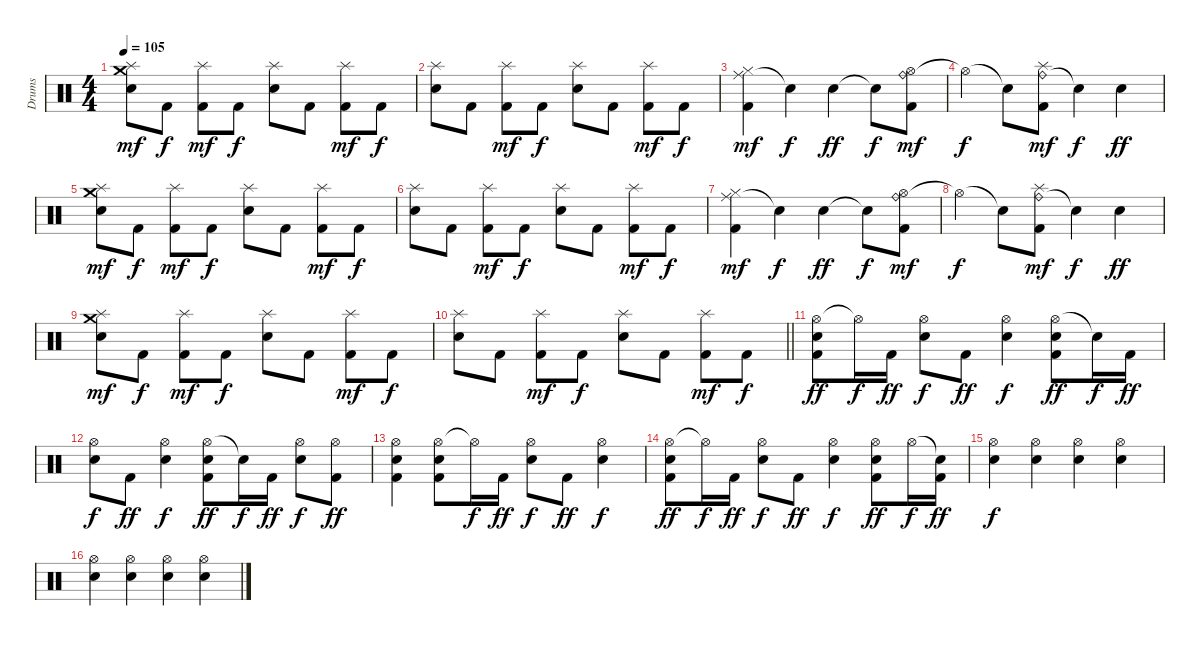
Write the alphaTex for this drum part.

\track ("Drums" "Drums") {instrument percussion}
\staff {score}
\articulation defaults
\ts (4 4)
\tempo 105
\clef neutral
\ks c
("Crash medium (hit)" "Splash (hit)" "Snare (hit) 2").8{dy mf} "Kick (hit) 2".8{dy f} ("Splash (hit)" "Kick (hit) 2").8{dy mf} "Kick (hit) 2".8{dy f} ("Splash (hit)" "Snare (hit) 2").8 "Kick (hit) 2".8 ("Splash (hit)" "Kick (hit) 2").8{dy mf} "Kick (hit) 2".8{dy f} |
("Splash (hit)" "Snare (hit) 2").8 "Kick (hit) 2".8 ("Splash (hit)" "Kick (hit) 2").8{dy mf} "Kick (hit) 2".8{dy f} ("Splash (hit)" "Snare (hit) 2").8 "Kick (hit) 2".8 ("Splash (hit)" "Kick (hit) 2").8{dy mf} "Kick (hit) 2".8{dy f} |
("Ride (middle)" "Hi-Hat (closed)" "Kick (hit) 2").4{dy mf} "Snare (hit)"{t}.4{dy f} "Snare (hit) 2".4{dy ff} "Snare (hit)"{t}.8{dy f} ("Ride (bell)" "Hi-Hat (open)" "Kick (hit) 2").8{dy mf} |
"Hi-Hat (open)"{t}.4{dy f} "Snare (hit)"{t}.8 ("Ride (bell)" "Splash (hit)" "Kick (hit) 2").8{dy mf} "Snare (hit)"{t}.4{dy f} "Snare (hit) 2".4{dy ff} |
("Crash medium (hit)" "Splash (hit)" "Snare (hit) 2").8{dy mf} "Kick (hit) 2".8{dy f} ("Splash (hit)" "Kick (hit) 2").8{dy mf} "Kick (hit) 2".8{dy f} ("Splash (hit)" "Snare (hit) 2").8 "Kick (hit) 2".8 ("Splash (hit)" "Kick (hit) 2").8{dy mf} "Kick (hit) 2".8{dy f} |
("Splash (hit)" "Snare (hit) 2").8 "Kick (hit) 2".8 ("Splash (hit)" "Kick (hit) 2").8{dy mf} "Kick (hit) 2".8{dy f} ("Splash (hit)" "Snare (hit) 2").8 "Kick (hit) 2".8 ("Splash (hit)" "Kick (hit) 2").8{dy mf} "Kick (hit) 2".8{dy f} |
("Ride (middle)" "Hi-Hat (closed)" "Kick (hit) 2").4{dy mf} "Snare (hit)"{t}.4{dy f} "Snare (hit) 2".4{dy ff} "Snare (hit)"{t}.8{dy f} ("Ride (bell)" "Hi-Hat (open)" "Kick (hit) 2").8{dy mf} |
"Hi-Hat (open)"{t}.4{dy f} "Snare (hit)"{t}.8 ("Ride (bell)" "Splash (hit)" "Kick (hit) 2").8{dy mf} "Snare (hit)"{t}.4{dy f} "Snare (hit) 2".4{dy ff} |
("Crash medium (hit)" "Splash (hit)" "Snare (hit) 2").8{dy mf} "Kick (hit) 2".8{dy f} ("Splash (hit)" "Kick (hit) 2").8{dy mf} "Kick (hit) 2".8{dy f} ("Splash (hit)" "Snare (hit) 2").8 "Kick (hit) 2".8 ("Splash (hit)" "Kick (hit) 2").8{dy mf} "Kick (hit) 2".8{dy f} |
\barLineRight lightlight
("Splash (hit)" "Snare (hit) 2").8 "Kick (hit) 2".8 ("Splash (hit)" "Kick (hit) 2").8{dy mf} "Kick (hit) 2".8{dy f} ("Splash (hit)" "Snare (hit) 2").8 "Kick (hit) 2".8 ("Splash (hit)" "Kick (hit) 2").8{dy mf} "Kick (hit) 2".8{dy f} |
\section ("" "")
("Hi-Hat (open)" "Snare (hit) 2" "Kick (hit) 2").8{dy ff} "Hi-Hat (open)"{t}.16{dy f} "Kick (hit) 2".16{dy ff} ("Hi-Hat (open)" "Snare (hit) 2").8{dy f} "Kick (hit) 2".8{dy ff} ("Hi-Hat (open)" "Snare (hit) 2").4{dy f} ("Hi-Hat (open)" "Snare (hit) 2" "Kick (hit) 2").8{dy ff} "Snare (hit)"{t}.16{dy f} "Kick (hit) 2".16{dy ff} |
("Hi-Hat (open)" "Snare (hit) 2").8{dy f} "Kick (hit) 2".8{dy ff} ("Hi-Hat (open)" "Snare (hit) 2").4{dy f} ("Hi-Hat (open)" "Snare (hit) 2" "Kick (hit) 2").8{dy ff} "Snare (hit)"{t}.16{dy f} "Kick (hit) 2".16{dy ff} ("Hi-Hat (open)" "Snare (hit) 2").8{dy f} ("Hi-Hat (open)" "Kick (hit) 2").8{dy ff} |
("Hi-Hat (open)" "Snare (hit) 2" "Kick (hit) 2").4 ("Hi-Hat (open)" "Snare (hit) 2" "Kick (hit) 2").8 "Hi-Hat (open)"{t}.16{dy f} "Kick (hit) 2".16{dy ff} ("Hi-Hat (open)" "Snare (hit) 2").8{dy f} "Kick (hit) 2".8{dy ff} ("Hi-Hat (open)" "Snare (hit) 2").4{dy f} |
("Hi-Hat (open)" "Snare (hit) 2" "Kick (hit) 2").8{dy ff} "Hi-Hat (open)"{t}.16{dy f} "Kick (hit) 2".16{dy ff} ("Hi-Hat (open)" "Snare (hit) 2").8{dy f} "Kick (hit) 2".8{dy ff} ("Hi-Hat (open)" "Snare (hit) 2").4{dy f} ("Hi-Hat (open)" "Snare (hit) 2" "Kick (hit) 2").8{dy ff} "Hi-Hat (open)".16{dy f} ("Snare (hit)"{t} "Kick (hit) 2").16{dy ff} |
("Hi-Hat (open)" "Snare (hit) 2").4{dy f} ("Hi-Hat (open)" "Snare (hit) 2").4 ("Hi-Hat (open)" "Snare (hit) 2").4 ("Hi-Hat (open)" "Snare (hit) 2").4 |
("Hi-Hat (open)" "Snare (hit) 2").4 ("Hi-Hat (open)" "Snare (hit) 2").4 ("Hi-Hat (open)" "Snare (hit) 2").4 ("Hi-Hat (open)" "Snare (hit) 2").4
